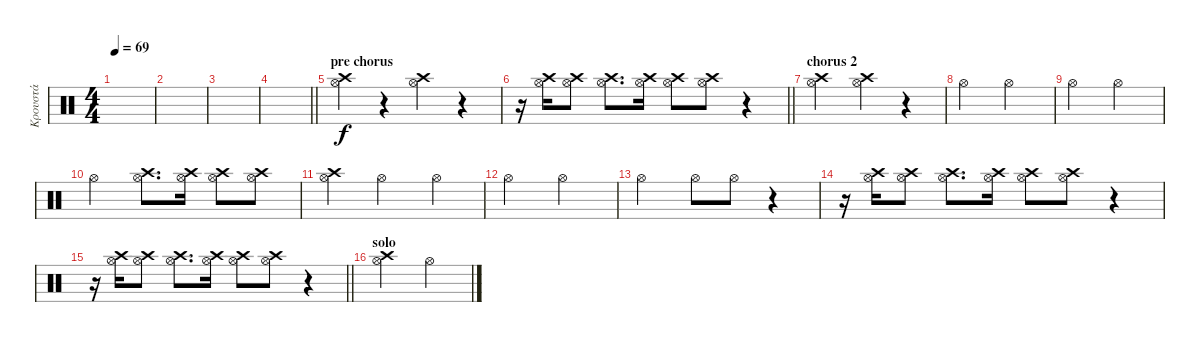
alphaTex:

\track ("Κρουστά" "Κρουστά") {instrument percussion}
\staff {score}
\articulation defaults
\ts (4 4)
\tempo 69
\clef neutral
\ks c
|
|
|
\barLineRight lightlight
|
\section ("" "pre chorus")
("Crash high (hit)" "Hi-Hat (open)").4 r.4 ("Crash high (hit)" "Hi-Hat (open)").4 r.4 |
\barLineRight lightlight
r.16 ("Crash high (hit)" "Hi-Hat (open)").16 ("Crash high (hit)" "Hi-Hat (open)").8 ("Crash high (hit)" "Hi-Hat (open)").8{d} ("Crash high (hit)" "Hi-Hat (open)").16 ("Crash high (hit)" "Hi-Hat (open)").8 ("Crash high (hit)" "Hi-Hat (open)").8 r.4 |
\section ("" "chorus 2")
("Crash high (hit)" "Hi-Hat (open)").2 ("Hi-Hat (open)" "Crash high (hit)").4 r.4 |
"Hi-Hat (open)".2 "Hi-Hat (open)".2 |
"Hi-Hat (open)".2 "Hi-Hat (open)".2 |
"Hi-Hat (open)".2 ("Crash high (hit)" "Hi-Hat (open)").8{d} ("Hi-Hat (open)" "Crash high (hit)").16 ("Hi-Hat (open)" "Crash high (hit)").8 ("Hi-Hat (open)" "Crash high (hit)").8 |
("Hi-Hat (open)" "Crash high (hit)").4 "Hi-Hat (open)".2 "Hi-Hat (open)".4 |
"Hi-Hat (open)".2 "Hi-Hat (open)".2 |
"Hi-Hat (open)".2 "Hi-Hat (open)".8 "Hi-Hat (open)".8 r.4 |
r.16 ("Hi-Hat (open)" "Crash high (hit)").16 ("Hi-Hat (open)" "Crash high (hit)").8 ("Hi-Hat (open)" "Crash high (hit)").8{d} ("Hi-Hat (open)" "Crash high (hit)").16 ("Hi-Hat (open)" "Crash high (hit)").8 ("Hi-Hat (open)" "Crash high (hit)").8 r.4 |
\barLineRight lightlight
r.16 ("Hi-Hat (open)" "Crash high (hit)").16 ("Hi-Hat (open)" "Crash high (hit)").8 ("Hi-Hat (open)" "Crash high (hit)").8{d} ("Hi-Hat (open)" "Crash high (hit)").16 ("Hi-Hat (open)" "Crash high (hit)").8 ("Hi-Hat (open)" "Crash high (hit)").8 r.4 |
\section ("" "solo")
("Crash high (hit)" "Hi-Hat (open)").2 "Hi-Hat (open)".2
